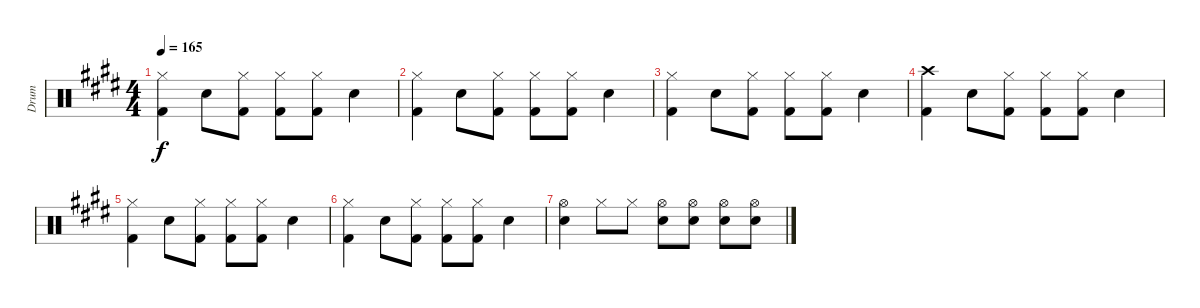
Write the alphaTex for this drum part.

\track ("Drum" "Drum") {instrument percussion}
\staff {score}
\articulation defaults
\ts (4 4)
\tempo 165
\clef neutral
\ks e
("Hi-Hat (closed)" "Kick (hit) 2").4{dy f} "Electric Snare (hit)".8 ("Hi-Hat (closed)" "Kick (hit) 2").8 ("Hi-Hat (closed)" "Kick (hit) 2").8 ("Hi-Hat (closed)" "Kick (hit) 2").8 "Electric Snare (hit)".4 |
("Hi-Hat (closed)" "Kick (hit) 2").4 "Electric Snare (hit)".8 ("Hi-Hat (closed)" "Kick (hit) 2").8 ("Hi-Hat (closed)" "Kick (hit) 2").8 ("Hi-Hat (closed)" "Kick (hit) 2").8 "Electric Snare (hit)".4 |
("Hi-Hat (closed)" "Kick (hit) 2").4 "Electric Snare (hit)".8 ("Hi-Hat (closed)" "Kick (hit) 2").8 ("Hi-Hat (closed)" "Kick (hit) 2").8 ("Hi-Hat (closed)" "Kick (hit) 2").8 "Electric Snare (hit)".4 |
("Crash high (hit)" "Kick (hit) 2").4 "Electric Snare (hit)".8 ("Hi-Hat (closed)" "Kick (hit) 2").8 ("Hi-Hat (closed)" "Kick (hit) 2").8 ("Hi-Hat (closed)" "Kick (hit) 2").8 "Electric Snare (hit)".4 |
("Hi-Hat (closed)" "Kick (hit) 2").4 "Electric Snare (hit)".8 ("Hi-Hat (closed)" "Kick (hit) 2").8 ("Hi-Hat (closed)" "Kick (hit) 2").8 ("Hi-Hat (closed)" "Kick (hit) 2").8 "Electric Snare (hit)".4 |
("Hi-Hat (closed)" "Kick (hit) 2").4 "Electric Snare (hit)".8 ("Hi-Hat (closed)" "Kick (hit) 2").8 ("Hi-Hat (closed)" "Kick (hit) 2").8 ("Hi-Hat (closed)" "Kick (hit) 2").8 "Electric Snare (hit)".4 |
("Hi-Hat (open)" "Electric Snare (hit)").4 "Hi-Hat (closed)".8 "Hi-Hat (closed)".8 ("Hi-Hat (open)" "Electric Snare (hit)").8 ("Hi-Hat (open)" "Electric Snare (hit)").8 ("Hi-Hat (open)" "Electric Snare (hit)").8 ("Hi-Hat (open)" "Electric Snare (hit)").8
